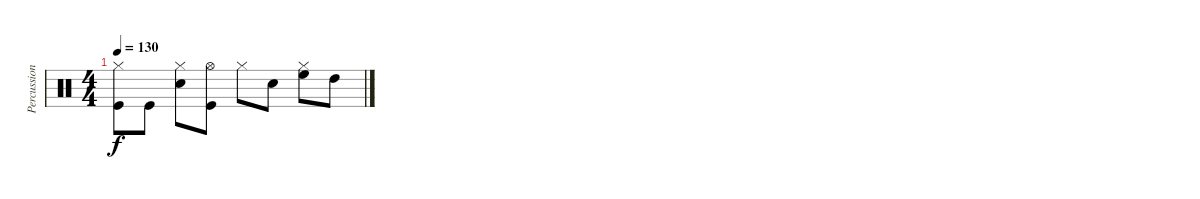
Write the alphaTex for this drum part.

\track ("Percussion" "Percussion") {instrument percussion}
\staff {score}
\articulation defaults
\ts (4 4)
\tempo 130
\clef neutral
\ks c
("Hi-Hat (closed)" "Kick (hit)").8{dy f volume 0} "Kick (hit)".8 ("Hi-Hat (closed)" "Snare (hit) 2").8 ("Hi-Hat (open)" "Kick (hit)").8 "Hi-Hat (closed)".8 "Snare (hit) 2".8 ("Hi-Hat (closed)" "High Floor Tom (hit)").8 "High Tom (hit)".8
